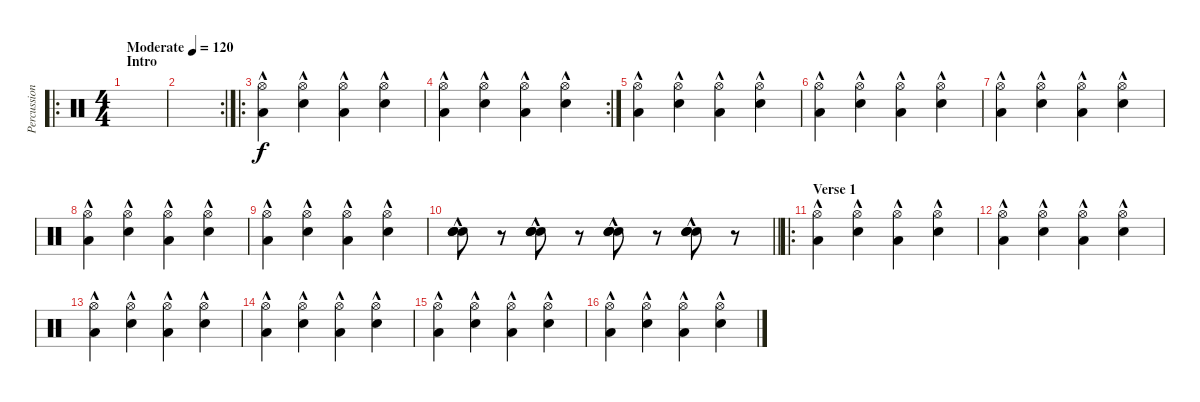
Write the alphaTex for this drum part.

\track ("Percussion" "Percussion") {instrument percussion}
\staff {score}
\articulation defaults
\ro
\ts (4 4)
\section ("" "Intro")
\tempo (120 "Moderate")
\clef neutral
\ks c
|
\rc 2
|
\ro
("Hi-Hat (open)" "Low Floor Tom (hit)"{hac}).4 ("Hi-Hat (open)" "Electric Snare (hit)"{hac}).4 ("Hi-Hat (open)" "Low Floor Tom (hit)"{hac}).4 ("Hi-Hat (open)" "Electric Snare (hit)"{hac}).4 |
\rc 2
("Hi-Hat (open)" "Low Floor Tom (hit)"{hac}).4 ("Hi-Hat (open)" "Electric Snare (hit)"{hac}).4 ("Hi-Hat (open)" "Low Floor Tom (hit)"{hac}).4 ("Hi-Hat (open)" "Electric Snare (hit)"{hac}).4 |
("Hi-Hat (open)" "Low Floor Tom (hit)"{hac}).4 ("Hi-Hat (open)" "Electric Snare (hit)"{hac}).4 ("Hi-Hat (open)" "Low Floor Tom (hit)"{hac}).4 ("Hi-Hat (open)" "Electric Snare (hit)"{hac}).4 |
("Hi-Hat (open)" "Low Floor Tom (hit)"{hac}).4 ("Hi-Hat (open)" "Electric Snare (hit)"{hac}).4 ("Hi-Hat (open)" "Low Floor Tom (hit)"{hac}).4 ("Hi-Hat (open)" "Electric Snare (hit)"{hac}).4 |
("Hi-Hat (open)" "Low Floor Tom (hit)"{hac}).4 ("Hi-Hat (open)" "Electric Snare (hit)"{hac}).4 ("Hi-Hat (open)" "Low Floor Tom (hit)"{hac}).4 ("Hi-Hat (open)" "Electric Snare (hit)"{hac}).4 |
("Hi-Hat (open)" "Low Floor Tom (hit)"{hac}).4 ("Hi-Hat (open)" "Electric Snare (hit)"{hac}).4 ("Hi-Hat (open)" "Low Floor Tom (hit)"{hac}).4 ("Hi-Hat (open)" "Electric Snare (hit)"{hac}).4 |
("Hi-Hat (open)" "Low Floor Tom (hit)"{hac}).4 ("Hi-Hat (open)" "Electric Snare (hit)"{hac}).4 ("Hi-Hat (open)" "Low Floor Tom (hit)"{hac}).4 ("Hi-Hat (open)" "Electric Snare (hit)"{hac}).4 |
\barLineRight lightlight
("Electric Snare (hit)"{hac} "Electric Snare (hit)"{hac} "Electric Snare (hit)"{hac} "Electric Snare (hit)"{hac}).8 r.8 ("Electric Snare (hit)"{hac} "Electric Snare (hit)"{hac} "Electric Snare (hit)"{hac} "Electric Snare (hit)"{hac}).8 r.8 ("Electric Snare (hit)"{hac} "Electric Snare (hit)"{hac} "Electric Snare (hit)"{hac} "Electric Snare (hit)"{hac}).8 r.8 ("Electric Snare (hit)"{hac} "Electric Snare (hit)"{hac} "Electric Snare (hit)"{hac} "Electric Snare (hit)"{hac}).8 r.8 |
\ro
\section ("" "Verse 1")
("Hi-Hat (open)" "Low Floor Tom (hit)"{hac}).4 ("Hi-Hat (open)" "Electric Snare (hit)"{hac}).4 ("Hi-Hat (open)" "Low Floor Tom (hit)"{hac}).4 ("Hi-Hat (open)" "Electric Snare (hit)"{hac}).4 |
("Hi-Hat (open)" "Low Floor Tom (hit)"{hac}).4 ("Hi-Hat (open)" "Electric Snare (hit)"{hac}).4 ("Hi-Hat (open)" "Low Floor Tom (hit)"{hac}).4 ("Hi-Hat (open)" "Electric Snare (hit)"{hac}).4 |
("Hi-Hat (open)" "Low Floor Tom (hit)"{hac}).4 ("Hi-Hat (open)" "Electric Snare (hit)"{hac}).4 ("Hi-Hat (open)" "Low Floor Tom (hit)"{hac}).4 ("Hi-Hat (open)" "Electric Snare (hit)"{hac}).4 |
("Hi-Hat (open)" "Low Floor Tom (hit)"{hac}).4 ("Hi-Hat (open)" "Electric Snare (hit)"{hac}).4 ("Hi-Hat (open)" "Low Floor Tom (hit)"{hac}).4 ("Hi-Hat (open)" "Electric Snare (hit)"{hac}).4 |
("Hi-Hat (open)" "Low Floor Tom (hit)"{hac}).4 ("Hi-Hat (open)" "Electric Snare (hit)"{hac}).4 ("Hi-Hat (open)" "Low Floor Tom (hit)"{hac}).4 ("Hi-Hat (open)" "Electric Snare (hit)"{hac}).4 |
("Hi-Hat (open)" "Low Floor Tom (hit)"{hac}).4 ("Hi-Hat (open)" "Electric Snare (hit)"{hac}).4 ("Hi-Hat (open)" "Low Floor Tom (hit)"{hac}).4 ("Hi-Hat (open)" "Electric Snare (hit)"{hac}).4
